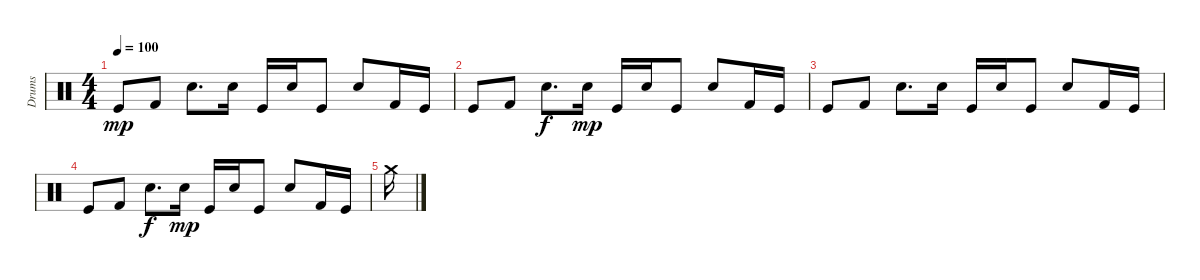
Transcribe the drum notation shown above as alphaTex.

\track ("Drums" "Drums") {instrument percussion}
\staff {score}
\articulation defaults
\ts (4 4)
\tempo 100
\clef neutral
\ks c "Kick (hit)".8{dy mp} "Kick (hit) 2".8 "Electric Snare (hit)".8{d} "Electric Snare (hit)".16 "Kick (hit)".16 "Electric Snare (hit)".16 "Kick (hit)".8 "Electric Snare (hit)".8 "Kick (hit) 2".16 "Kick (hit)".16
|
"Kick (hit)".8 "Kick (hit) 2".8 "Electric Snare (hit)".8{d dy f} "Electric Snare (hit)".16{dy mp} "Kick (hit)".16 "Electric Snare (hit)".16 "Kick (hit)".8 "Electric Snare (hit)".8 "Kick (hit) 2".16 "Kick (hit)".16 |
"Kick (hit)".8 "Kick (hit) 2".8 "Electric Snare (hit)".8{d} "Electric Snare (hit)".16 "Kick (hit)".16 "Electric Snare (hit)".16 "Kick (hit)".8 "Electric Snare (hit)".8 "Kick (hit) 2".16 "Kick (hit)".16 |
"Kick (hit)".8 "Kick (hit) 2".8 "Electric Snare (hit)".8{d dy f} "Electric Snare (hit)".16{dy mp} "Kick (hit)".16 "Electric Snare (hit)".16 "Kick (hit)".8 "Electric Snare (hit)".8 "Kick (hit) 2".16 "Kick (hit)".16 |
"Crash medium (hit)".16
